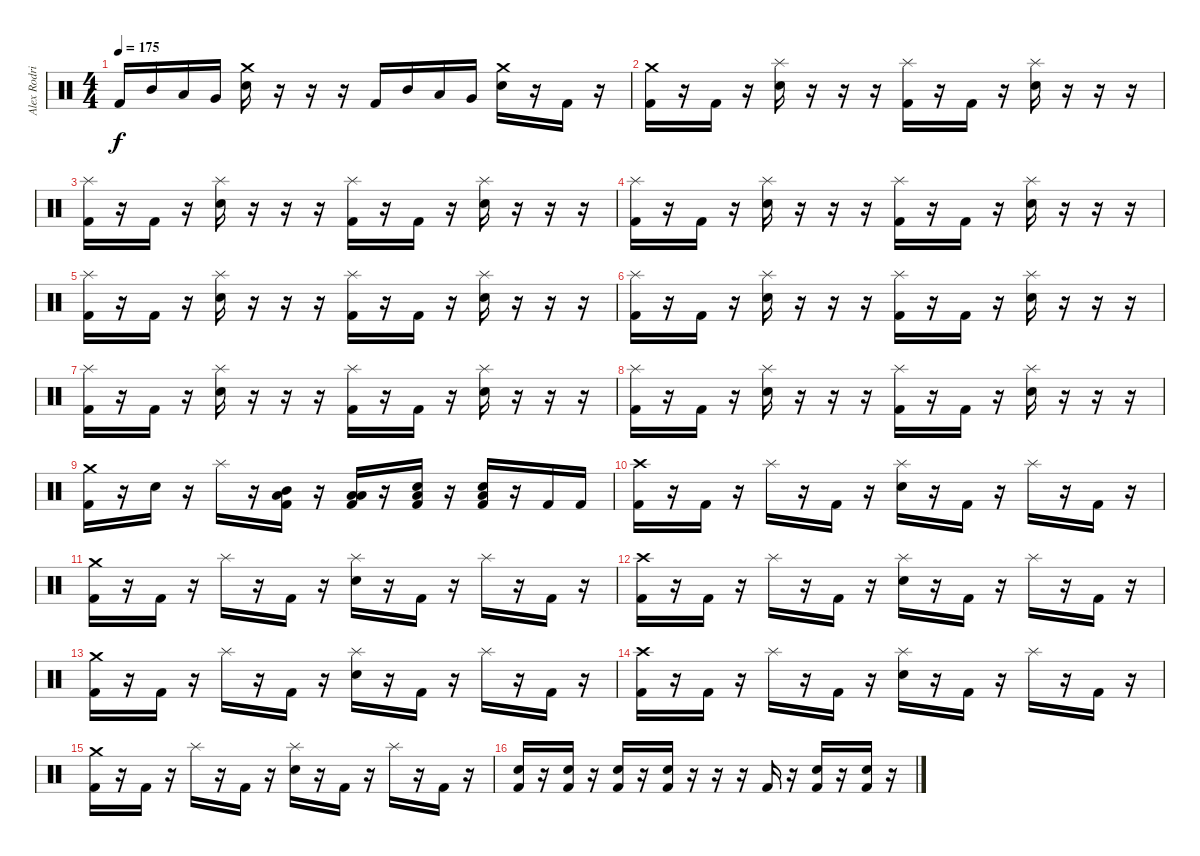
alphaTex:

\track ("Alex Rodriguez" "Alex Rodri") {instrument percussion}
\staff {score}
\articulation defaults
\ts (4 4)
\tempo 175
\clef neutral
\ks c "Kick (hit) 2".16{dy f} "Mid Tom (hit)".16 "Low Tom (hit)".16 "Very Low Tom (hit)".16
("Crash medium (hit)" "Electric Snare (hit)").16 r.16 r.16 r.16 "Kick (hit) 2".16 "Mid Tom (hit)".16 "Low Tom (hit)".16 "Very Low Tom (hit)".16 ("Crash medium (hit)" "Electric Snare (hit)").16 r.16 "Kick (hit) 2".16 r.16 |
("Crash medium (hit)" "Kick (hit) 2").16 r.16 "Kick (hit) 2".16 r.16 ("Splash (hit)" "Electric Snare (hit)").16 r.16 r.16 r.16 ("Splash (hit)" "Kick (hit) 2").16 r.16 "Kick (hit) 2".16 r.16 ("Splash (hit)" "Electric Snare (hit)").16 r.16 r.16 r.16 |
("Splash (hit)" "Kick (hit) 2").16 r.16 "Kick (hit) 2".16 r.16 ("Splash (hit)" "Electric Snare (hit)").16 r.16 r.16 r.16 ("Splash (hit)" "Kick (hit) 2").16 r.16 "Kick (hit) 2".16 r.16 ("Splash (hit)" "Electric Snare (hit)").16 r.16 r.16 r.16 |
("Splash (hit)" "Kick (hit) 2").16 r.16 "Kick (hit) 2".16 r.16 ("Splash (hit)" "Electric Snare (hit)").16 r.16 r.16 r.16 ("Splash (hit)" "Kick (hit) 2").16 r.16 "Kick (hit) 2".16 r.16 ("Splash (hit)" "Electric Snare (hit)").16 r.16 r.16 r.16 |
("Splash (hit)" "Kick (hit) 2").16 r.16 "Kick (hit) 2".16 r.16 ("Splash (hit)" "Electric Snare (hit)").16 r.16 r.16 r.16 ("Splash (hit)" "Kick (hit) 2").16 r.16 "Kick (hit) 2".16 r.16 ("Splash (hit)" "Electric Snare (hit)").16 r.16 r.16 r.16 |
("Splash (hit)" "Kick (hit) 2").16 r.16 "Kick (hit) 2".16 r.16 ("Splash (hit)" "Electric Snare (hit)").16 r.16 r.16 r.16 ("Splash (hit)" "Kick (hit) 2").16 r.16 "Kick (hit) 2".16 r.16 ("Splash (hit)" "Electric Snare (hit)").16 r.16 r.16 r.16 |
("Splash (hit)" "Kick (hit) 2").16 r.16 "Kick (hit) 2".16 r.16 ("Splash (hit)" "Electric Snare (hit)").16 r.16 r.16 r.16 ("Splash (hit)" "Kick (hit) 2").16 r.16 "Kick (hit) 2".16 r.16 ("Splash (hit)" "Electric Snare (hit)").16 r.16 r.16 r.16 |
("Splash (hit)" "Kick (hit) 2").16 r.16 "Kick (hit) 2".16 r.16 ("Splash (hit)" "Electric Snare (hit)").16 r.16 r.16 r.16 ("Splash (hit)" "Kick (hit) 2").16 r.16 "Kick (hit) 2".16 r.16 ("Splash (hit)" "Electric Snare (hit)").16 r.16 r.16 r.16 |
("Crash medium (hit)" "Kick (hit) 2").16 r.16 "Electric Snare (hit)".16 r.16 "Splash (hit)".16 r.16 ("Mid Tom (hit)" "Low Floor Tom (hit)" "Kick (hit) 2").16 r.16 ("Low Tom (hit)" "Low Floor Tom (hit)" "Kick (hit) 2").16 r.16 ("Electric Snare (hit)" "Low Floor Tom (hit)" "Kick (hit) 2").16 r.16 ("Electric Snare (hit)" "Low Floor Tom (hit)" "Kick (hit) 2").16 r.16 "Kick (hit) 2".16 "Kick (hit) 2".16 |
("Crash high (hit)" "Kick (hit) 2").16 r.16 "Kick (hit) 2".16 r.16 "Splash (hit)".16 r.16 "Kick (hit) 2".16 r.16 ("Splash (hit)" "Electric Snare (hit)").16 r.16 "Kick (hit) 2".16 r.16 "Splash (hit)".16 r.16 "Kick (hit) 2".16 r.16 |
("Crash medium (hit)" "Kick (hit) 2").16 r.16 "Kick (hit) 2".16 r.16 "Splash (hit)".16 r.16 "Kick (hit) 2".16 r.16 ("Splash (hit)" "Electric Snare (hit)").16 r.16 "Kick (hit) 2".16 r.16 "Splash (hit)".16 r.16 "Kick (hit) 2".16 r.16 |
("Crash high (hit)" "Kick (hit) 2").16 r.16 "Kick (hit) 2".16 r.16 "Splash (hit)".16 r.16 "Kick (hit) 2".16 r.16 ("Splash (hit)" "Electric Snare (hit)").16 r.16 "Kick (hit) 2".16 r.16 "Splash (hit)".16 r.16 "Kick (hit) 2".16 r.16 |
("Crash medium (hit)" "Kick (hit) 2").16 r.16 "Kick (hit) 2".16 r.16 "Splash (hit)".16 r.16 "Kick (hit) 2".16 r.16 ("Splash (hit)" "Electric Snare (hit)").16 r.16 "Kick (hit) 2".16 r.16 "Splash (hit)".16 r.16 "Kick (hit) 2".16 r.16 |
("Crash high (hit)" "Kick (hit) 2").16 r.16 "Kick (hit) 2".16 r.16 "Splash (hit)".16 r.16 "Kick (hit) 2".16 r.16 ("Splash (hit)" "Electric Snare (hit)").16 r.16 "Kick (hit) 2".16 r.16 "Splash (hit)".16 r.16 "Kick (hit) 2".16 r.16 |
("Crash medium (hit)" "Kick (hit) 2").16 r.16 "Kick (hit) 2".16 r.16 "Splash (hit)".16 r.16 "Kick (hit) 2".16 r.16 ("Splash (hit)" "Electric Snare (hit)").16 r.16 "Kick (hit) 2".16 r.16 "Splash (hit)".16 r.16 "Kick (hit) 2".16 r.16 |
("Electric Snare (hit)" "Kick (hit) 2").16 r.16 ("Electric Snare (hit)" "Kick (hit) 2").16 r.16 ("Electric Snare (hit)" "Kick (hit) 2").16 r.16 ("Electric Snare (hit)" "Kick (hit) 2").16 r.16 r.16 r.16 "Kick (hit) 2".16 r.16 ("Electric Snare (hit)" "Kick (hit) 2").16 r.16 ("Electric Snare (hit)" "Kick (hit) 2").16 r.16
